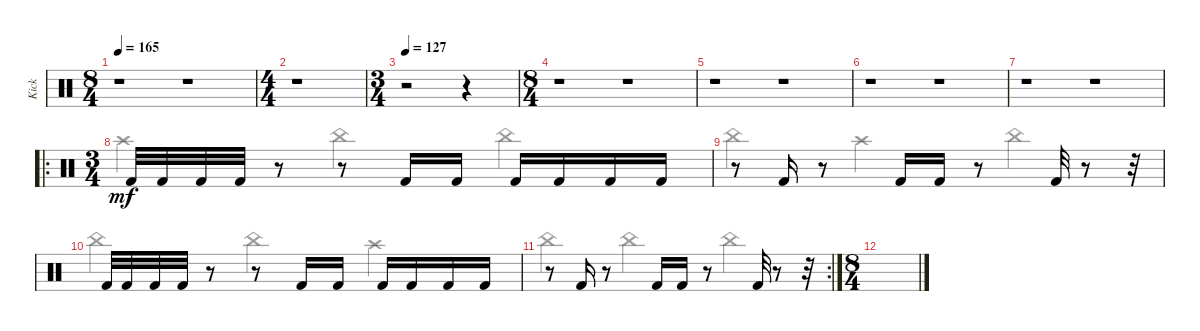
\track ("Kick" "Kick") {instrument percussion}
\staff {score}
\articulation defaults
\voice
\ts (8 4)
\tempo 165
\clef neutral
\ks c
r.1{dy mf} r.1 |
\ts (4 4)
r.1 |
\ts (3 4)
\tempo 127
r.2 r.4 |
\ts (8 4)
r.1 r.1 |
r.1 r.1 |
r.1 r.1 |
r.1 r.1 |
\ro
\ts (3 4)
"Kick (hit) 2".32 "Kick (hit) 2".32 "Kick (hit) 2".32 "Kick (hit) 2".32 r.8 r.8 "Kick (hit) 2".16 "Kick (hit) 2".16 "Kick (hit) 2".16 "Kick (hit) 2".16 "Kick (hit) 2".16 "Kick (hit) 2".16 |
r.8 "Kick (hit) 2".16 r.8 "Kick (hit) 2".16 "Kick (hit) 2".16 r.8 "Kick (hit) 2".32 r.8 r.32 |
"Kick (hit) 2".32 "Kick (hit) 2".32 "Kick (hit) 2".32 "Kick (hit) 2".32 r.8 r.8 "Kick (hit) 2".16 "Kick (hit) 2".16 "Kick (hit) 2".16 "Kick (hit) 2".16 "Kick (hit) 2".16 "Kick (hit) 2".16 |
\rc 2
r.8 "Kick (hit) 2".16 r.8 "Kick (hit) 2".16 "Kick (hit) 2".16 r.8 "Kick (hit) 2".32 r.8 r.32 |
\ts (8 4)
\voice
\clef neutral
\ottava regular
\simile none
\ks c
|
|
|
|
|
|
|
"Crash high (hit)".4 "China (hit)".4 "China (hit)".4 |
"China (hit)".4 "Crash high (hit)".4 "China (hit)".4 |
"China (hit)".4 "China (hit)".4 "Crash high (hit)".4 |
"China (hit)".4 "China (hit)".4 "China (hit)".4 |
